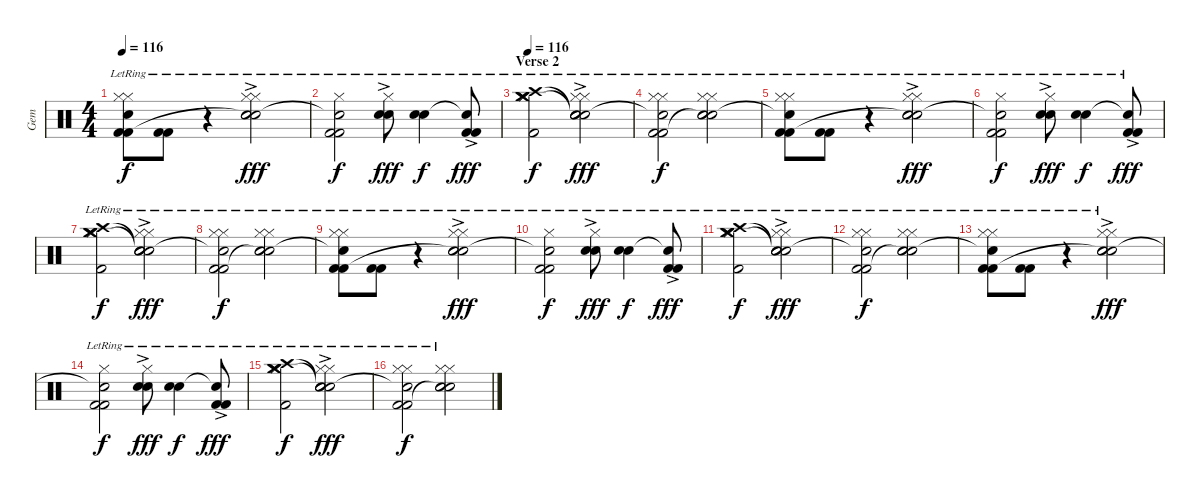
\track ("Gem" "Gem") {instrument percussion}
\staff {score}
\articulation defaults
\ts (4 4)
\tempo 116
\clef neutral
\ks c
("Hi-Hat (closed)"{lr} "Hi-Hat (closed)"{lr} "Kick (hit) 2" "Snare (hit)"{t} "Kick (hit) 2"{lr}).8{dy f} ("Kick (hit) 2" "Kick (hit) 2"{lr}).8 r.4 ("Hi-Hat (closed)"{lr} "Hi-Hat (closed)"{lr} "Snare (hit) 2" "Snare (hit) 2"{ac lr} "Snare (hit)"{t}).2{dy fff} |
("Hi-Hat (closed)"{lr} "Kick (hit) 2" "Snare (hit)"{t} "Kick (hit) 2"{lr}).2{dy f} ("Hi-Hat (closed)"{lr} "Snare (hit) 2" "Snare (hit) 2"{ac lr}).8{dy fff} ("Snare (hit) 2" "Snare (hit) 2"{lr}).4{dy f} ("Kick (hit) 2" "Snare (hit)"{t} "Kick (hit) 2"{ac lr}).8{dy fff} |
\section ("" "Verse 2")
\tempo 116
("Hi-Hat (closed)"{lr} "Hi-Hat (closed)"{lr} "Crash medium (hit)"{lr} "Crash medium (hit)"{lr} "Kick (hit) 2"{lr} "Crash high (hit)"{lr}).2{dy f} ("Hi-Hat (closed)"{lr} "Hi-Hat (closed)"{lr} "Snare (hit)"{t} "Snare (hit) 2" "Snare (hit) 2"{ac lr} "Snare (hit)"{t}).2{dy fff} |
("Hi-Hat (closed)"{lr} "Hi-Hat (closed)"{lr} "Kick (hit) 2" "Snare (hit)"{t} "Kick (hit) 2"{lr}).2{dy f} ("Hi-Hat (closed)"{lr} "Hi-Hat (closed)"{lr} "Snare (hit) 2" "Snare (hit) 2"{lr} "Snare (hit)"{t}).2 |
("Hi-Hat (closed)"{lr} "Hi-Hat (closed)"{lr} "Kick (hit) 2" "Snare (hit)"{t} "Kick (hit) 2"{lr}).8 ("Kick (hit) 2" "Kick (hit) 2"{lr}).8 r.4 ("Hi-Hat (closed)"{lr} "Hi-Hat (closed)"{lr} "Snare (hit) 2" "Snare (hit) 2"{ac lr} "Snare (hit)"{t}).2{dy fff} |
("Hi-Hat (closed)"{lr} "Kick (hit) 2" "Snare (hit)"{t} "Kick (hit) 2"{lr}).2{dy f} ("Hi-Hat (closed)"{lr} "Snare (hit) 2" "Snare (hit) 2"{ac lr}).8{dy fff} ("Snare (hit) 2" "Snare (hit) 2"{lr}).4{dy f} ("Kick (hit) 2" "Snare (hit)"{t} "Kick (hit) 2"{ac lr}).8{dy fff} |
("Hi-Hat (closed)"{lr} "Hi-Hat (closed)"{lr} "Crash medium (hit)"{lr} "Crash medium (hit)"{lr} "Kick (hit) 2"{lr} "Crash high (hit)"{lr}).2{dy f} ("Hi-Hat (closed)"{lr} "Hi-Hat (closed)"{lr} "Snare (hit)"{t} "Snare (hit) 2" "Snare (hit) 2"{ac lr} "Snare (hit)"{t}).2{dy fff} |
("Hi-Hat (closed)"{lr} "Hi-Hat (closed)"{lr} "Kick (hit) 2" "Snare (hit)"{t} "Kick (hit) 2"{lr}).2{dy f} ("Hi-Hat (closed)"{lr} "Hi-Hat (closed)"{lr} "Snare (hit) 2" "Snare (hit) 2"{lr} "Snare (hit)"{t}).2 |
("Hi-Hat (closed)"{lr} "Hi-Hat (closed)"{lr} "Kick (hit) 2" "Snare (hit)"{t} "Kick (hit) 2"{lr}).8 ("Kick (hit) 2" "Kick (hit) 2"{lr}).8 r.4 ("Hi-Hat (closed)"{lr} "Hi-Hat (closed)"{lr} "Snare (hit) 2" "Snare (hit) 2"{ac lr} "Snare (hit)"{t}).2{dy fff} |
("Hi-Hat (closed)"{lr} "Kick (hit) 2" "Snare (hit)"{t} "Kick (hit) 2"{lr}).2{dy f} ("Hi-Hat (closed)"{lr} "Snare (hit) 2" "Snare (hit) 2"{ac lr}).8{dy fff} ("Snare (hit) 2" "Snare (hit) 2"{lr}).4{dy f} ("Kick (hit) 2" "Snare (hit)"{t} "Kick (hit) 2"{ac lr}).8{dy fff} |
("Hi-Hat (closed)"{lr} "Hi-Hat (closed)"{lr} "Crash medium (hit)"{lr} "Crash medium (hit)"{lr} "Kick (hit) 2"{lr} "Crash high (hit)"{lr}).2{dy f} ("Hi-Hat (closed)"{lr} "Hi-Hat (closed)"{lr} "Snare (hit)"{t} "Snare (hit) 2" "Snare (hit) 2"{ac lr} "Snare (hit)"{t}).2{dy fff} |
("Hi-Hat (closed)"{lr} "Hi-Hat (closed)"{lr} "Kick (hit) 2" "Snare (hit)"{t} "Kick (hit) 2"{lr}).2{dy f} ("Hi-Hat (closed)"{lr} "Hi-Hat (closed)"{lr} "Snare (hit) 2" "Snare (hit) 2"{lr} "Snare (hit)"{t}).2 |
("Hi-Hat (closed)"{lr} "Hi-Hat (closed)"{lr} "Kick (hit) 2" "Snare (hit)"{t} "Kick (hit) 2"{lr}).8 ("Kick (hit) 2" "Kick (hit) 2"{lr}).8 r.4 ("Hi-Hat (closed)"{lr} "Hi-Hat (closed)"{lr} "Snare (hit) 2" "Snare (hit) 2"{ac lr} "Snare (hit)"{t}).2{dy fff} |
("Hi-Hat (closed)"{lr} "Kick (hit) 2" "Snare (hit)"{t} "Kick (hit) 2"{lr}).2{dy f} ("Hi-Hat (closed)"{lr} "Snare (hit) 2" "Snare (hit) 2"{ac lr}).8{dy fff} ("Snare (hit) 2" "Snare (hit) 2"{lr}).4{dy f} ("Kick (hit) 2" "Snare (hit)"{t} "Kick (hit) 2"{ac lr}).8{dy fff} |
("Hi-Hat (closed)"{lr} "Hi-Hat (closed)"{lr} "Crash medium (hit)"{lr} "Crash medium (hit)"{lr} "Kick (hit) 2"{lr} "Crash high (hit)"{lr}).2{dy f} ("Hi-Hat (closed)"{lr} "Hi-Hat (closed)"{lr} "Snare (hit)"{t} "Snare (hit) 2" "Snare (hit) 2"{ac lr} "Snare (hit)"{t}).2{dy fff} |
("Hi-Hat (closed)"{lr} "Hi-Hat (closed)"{lr} "Kick (hit) 2" "Snare (hit)"{t} "Kick (hit) 2"{lr}).2{dy f} ("Hi-Hat (closed)"{lr} "Hi-Hat (closed)"{lr} "Snare (hit) 2" "Snare (hit) 2"{lr} "Snare (hit)"{t}).2
